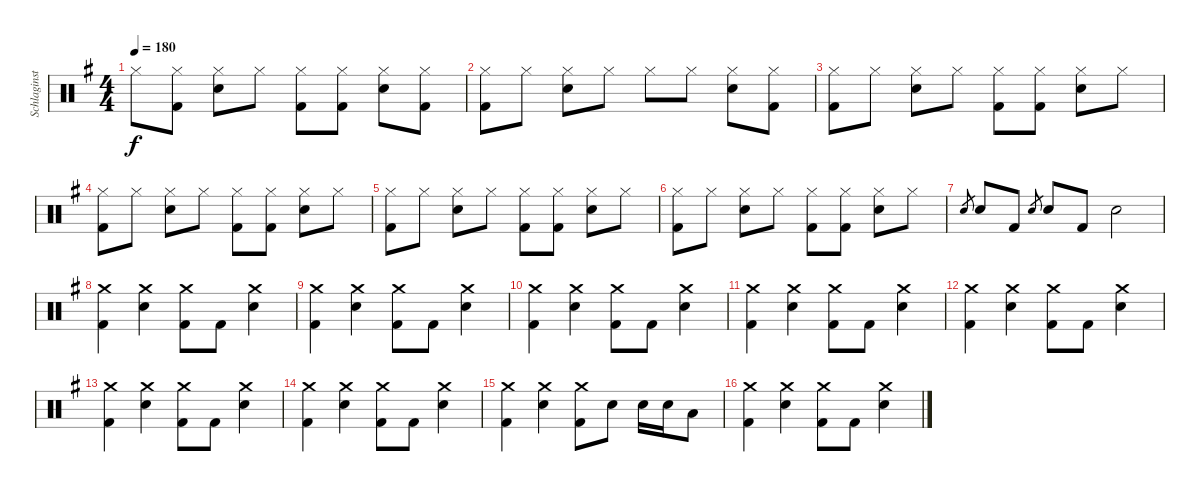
\track ("Schlaginstrumente - Auswahl" "Schlaginst") {instrument percussion}
\staff {score}
\articulation defaults
\ts (4 4)
\tempo 180
\clef neutral
\ks g "Hi-Hat (closed)".8{dy f}
("Hi-Hat (closed)" "Kick (hit) 2").8 ("Hi-Hat (closed)" "Electric Snare (hit)").8 "Hi-Hat (closed)".8 ("Hi-Hat (closed)" "Kick (hit) 2").8 ("Hi-Hat (closed)" "Kick (hit) 2").8 ("Hi-Hat (closed)" "Electric Snare (hit)").8 ("Hi-Hat (closed)" "Kick (hit) 2").8 |
("Hi-Hat (closed)" "Kick (hit) 2").8 "Hi-Hat (closed)".8 ("Hi-Hat (closed)" "Electric Snare (hit)").8 "Hi-Hat (closed)".8 "Hi-Hat (closed)".8 "Hi-Hat (closed)".8 ("Hi-Hat (closed)" "Electric Snare (hit)").8 ("Hi-Hat (closed)" "Kick (hit) 2").8 |
("Hi-Hat (closed)" "Kick (hit) 2").8 "Hi-Hat (closed)".8 ("Hi-Hat (closed)" "Electric Snare (hit)").8 "Hi-Hat (closed)".8 ("Hi-Hat (closed)" "Kick (hit) 2").8 ("Hi-Hat (closed)" "Kick (hit) 2").8 ("Hi-Hat (closed)" "Electric Snare (hit)").8 "Hi-Hat (closed)".8 |
("Hi-Hat (closed)" "Kick (hit) 2").8 "Hi-Hat (closed)".8 ("Hi-Hat (closed)" "Electric Snare (hit)").8 "Hi-Hat (closed)".8 ("Hi-Hat (closed)" "Kick (hit) 2").8 ("Hi-Hat (closed)" "Kick (hit) 2").8 ("Hi-Hat (closed)" "Electric Snare (hit)").8 "Hi-Hat (closed)".8 |
("Hi-Hat (closed)" "Kick (hit) 2").8 "Hi-Hat (closed)".8 ("Hi-Hat (closed)" "Electric Snare (hit)").8 "Hi-Hat (closed)".8 ("Hi-Hat (closed)" "Kick (hit) 2").8 ("Hi-Hat (closed)" "Kick (hit) 2").8 ("Hi-Hat (closed)" "Electric Snare (hit)").8 "Hi-Hat (closed)".8 |
("Hi-Hat (closed)" "Kick (hit) 2").8 "Hi-Hat (closed)".8 ("Hi-Hat (closed)" "Electric Snare (hit)").8 "Hi-Hat (closed)".8 ("Hi-Hat (closed)" "Kick (hit) 2").8 ("Hi-Hat (closed)" "Kick (hit) 2").8 ("Hi-Hat (closed)" "Electric Snare (hit)").8 "Hi-Hat (closed)".8 |
"Electric Snare (hit)".8{gr} "Electric Snare (hit)".8 "Kick (hit) 2".8 "Electric Snare (hit)".8{gr} "Electric Snare (hit)".8 "Kick (hit) 2".8 "Electric Snare (hit)".2 |
("Crash medium (hit)" "Kick (hit) 2").4 ("Crash medium (hit)" "Electric Snare (hit)").4 ("Crash medium (hit)" "Kick (hit) 2").8 "Kick (hit) 2".8 ("Crash medium (hit)" "Electric Snare (hit)").4 |
("Crash medium (hit)" "Kick (hit) 2").4 ("Crash medium (hit)" "Electric Snare (hit)").4 ("Crash medium (hit)" "Kick (hit) 2").8 "Kick (hit) 2".8 ("Crash medium (hit)" "Electric Snare (hit)").4 |
("Crash medium (hit)" "Kick (hit) 2").4 ("Crash medium (hit)" "Electric Snare (hit)").4 ("Crash medium (hit)" "Kick (hit) 2").8 "Kick (hit) 2".8 ("Crash medium (hit)" "Electric Snare (hit)").4 |
("Crash medium (hit)" "Kick (hit) 2").4 ("Crash medium (hit)" "Electric Snare (hit)").4 ("Crash medium (hit)" "Kick (hit) 2").8 "Kick (hit) 2".8 ("Crash medium (hit)" "Electric Snare (hit)").4 |
("Crash medium (hit)" "Kick (hit) 2").4 ("Crash medium (hit)" "Electric Snare (hit)").4 ("Crash medium (hit)" "Kick (hit) 2").8 "Kick (hit) 2".8 ("Crash medium (hit)" "Electric Snare (hit)").4 |
("Crash medium (hit)" "Kick (hit) 2").4 ("Crash medium (hit)" "Electric Snare (hit)").4 ("Crash medium (hit)" "Kick (hit) 2").8 "Kick (hit) 2".8 ("Crash medium (hit)" "Electric Snare (hit)").4 |
("Crash medium (hit)" "Kick (hit) 2").4 ("Crash medium (hit)" "Electric Snare (hit)").4 ("Crash medium (hit)" "Kick (hit) 2").8 "Kick (hit) 2".8 ("Crash medium (hit)" "Electric Snare (hit)").4 |
("Crash medium (hit)" "Kick (hit) 2").4 ("Crash medium (hit)" "Electric Snare (hit)").4 ("Crash medium (hit)" "Kick (hit) 2").8 "Electric Snare (hit)".8 "Electric Snare (hit)".16 "Electric Snare (hit)".16 "Low Tom (hit)".8 |
("Crash medium (hit)" "Kick (hit) 2").4 ("Crash medium (hit)" "Electric Snare (hit)").4 ("Crash medium (hit)" "Kick (hit) 2").8 "Kick (hit) 2".8 ("Crash medium (hit)" "Electric Snare (hit)").4
